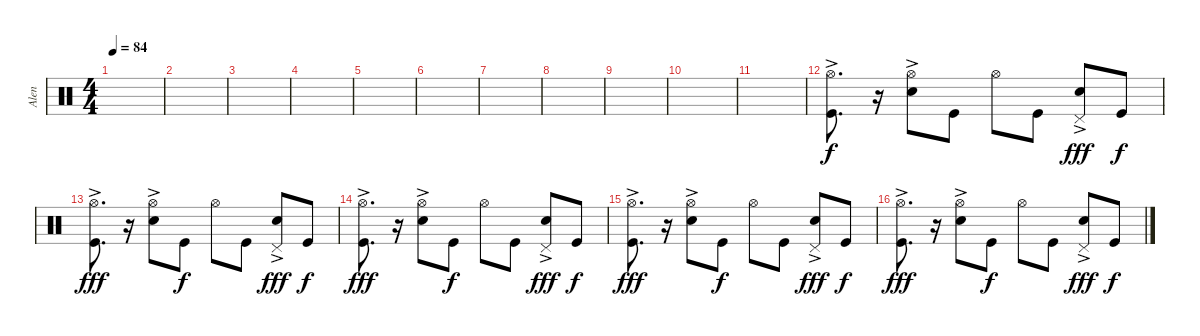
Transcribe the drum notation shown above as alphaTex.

\track ("Alen" "Alen") {instrument percussion}
\staff {score}
\articulation defaults
\ts (4 4)
\tempo 84
\clef neutral
\ks c
|
|
|
|
|
|
|
|
|
|
|
("Hi-Hat (open)"{ac} "Kick (hit)").8{d} r.16 ("Hi-Hat (open)" "Snare (hit) 2"{ac}).8 "Kick (hit)".8{dy f} "Hi-Hat (open)".8 "Kick (hit)".8 ("Snare (hit) 2"{ac} "Pedal Hi-Hat (hit)"{ac}).8{dy fff} "Kick (hit)".8{dy f} |
("Hi-Hat (open)"{ac} "Kick (hit)").8{d dy fff} r.16 ("Hi-Hat (open)" "Snare (hit) 2"{ac}).8 "Kick (hit)".8{dy f} "Hi-Hat (open)".8 "Kick (hit)".8 ("Snare (hit) 2"{ac} "Pedal Hi-Hat (hit)"{ac}).8{dy fff} "Kick (hit)".8{dy f} |
("Hi-Hat (open)"{ac} "Kick (hit)").8{d dy fff} r.16 ("Hi-Hat (open)" "Snare (hit) 2"{ac}).8 "Kick (hit)".8{dy f} "Hi-Hat (open)".8 "Kick (hit)".8 ("Snare (hit) 2"{ac} "Pedal Hi-Hat (hit)"{ac}).8{dy fff} "Kick (hit)".8{dy f} |
("Hi-Hat (open)"{ac} "Kick (hit)").8{d dy fff} r.16 ("Hi-Hat (open)" "Snare (hit) 2"{ac}).8 "Kick (hit)".8{dy f} "Hi-Hat (open)".8 "Kick (hit)".8 ("Snare (hit) 2"{ac} "Pedal Hi-Hat (hit)"{ac}).8{dy fff} "Kick (hit)".8{dy f} |
("Hi-Hat (open)"{ac} "Kick (hit)").8{d dy fff} r.16 ("Hi-Hat (open)" "Snare (hit) 2"{ac}).8 "Kick (hit)".8{dy f} "Hi-Hat (open)".8 "Kick (hit)".8 ("Snare (hit) 2"{ac} "Pedal Hi-Hat (hit)"{ac}).8{dy fff} "Kick (hit)".8{dy f}
